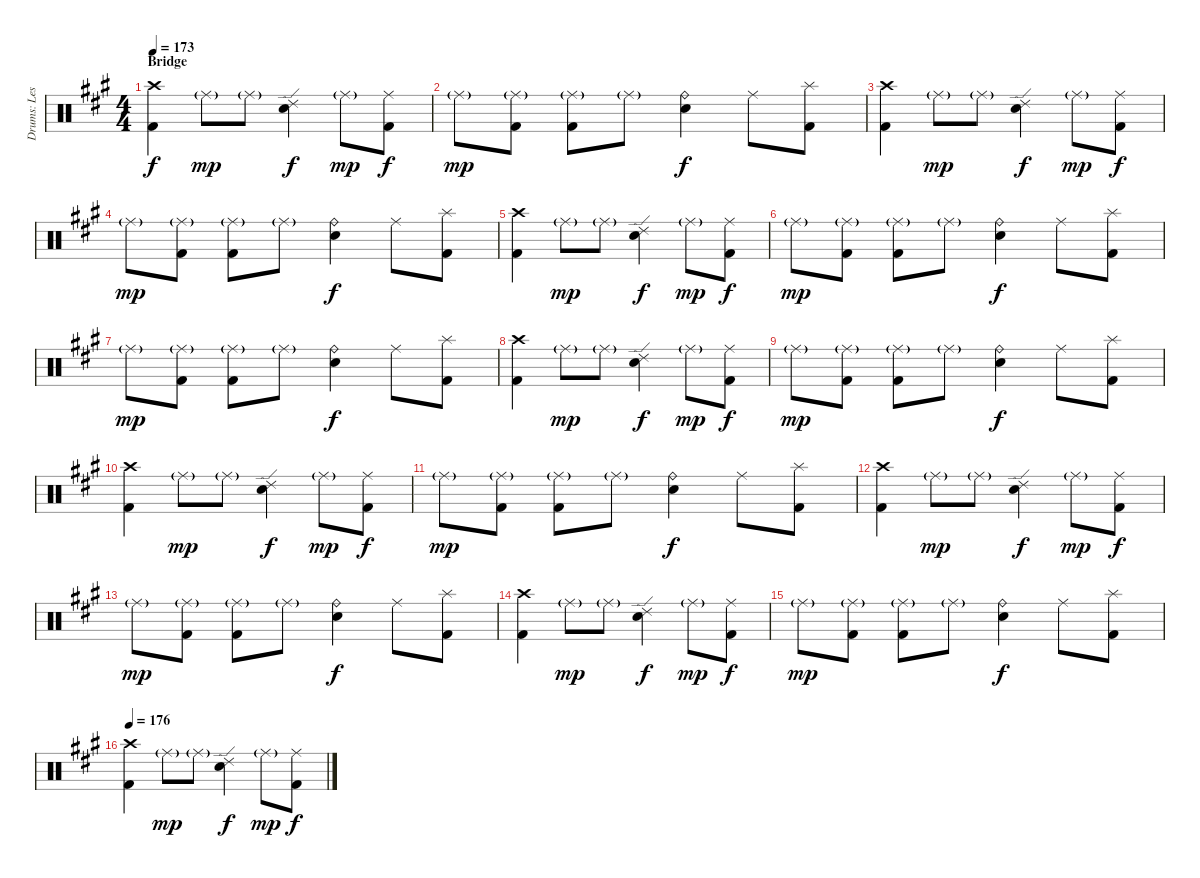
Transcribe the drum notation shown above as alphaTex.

\track ("Drums: Les" "Drums: Les") {instrument percussion}
\staff {score}
\articulation defaults
\ts (4 4)
\section ("" "Bridge")
\tempo 173
\clef neutral
\ks a
("Crash high (hit)" "Kick (hit) 2").4{dy f} "Ride (middle)"{g}.8{dy mp} "Ride (middle)"{g}.8 ("Ride (edge) 2" "Snare (hit) 2").4{dy f} "Ride (middle)"{g}.8{dy mp} ("Ride (middle)" "Kick (hit) 2").8{dy f} |
"Ride (middle)"{g}.8{dy mp} ("Ride (middle)"{g} "Kick (hit) 2").8 ("Ride (middle)"{g} "Kick (hit) 2").8 "Ride (middle)"{g}.8 ("Ride (bell)" "Snare (hit) 2").4{dy f} "Ride (middle)".8 ("Splash (hit)" "Kick (hit) 2").8 |
("Crash high (hit)" "Kick (hit) 2").4 "Ride (middle)"{g}.8{dy mp} "Ride (middle)"{g}.8 ("Ride (edge) 2" "Snare (hit) 2").4{dy f} "Ride (middle)"{g}.8{dy mp} ("Ride (middle)" "Kick (hit) 2").8{dy f} |
"Ride (middle)"{g}.8{dy mp} ("Ride (middle)"{g} "Kick (hit) 2").8 ("Ride (middle)"{g} "Kick (hit) 2").8 "Ride (middle)"{g}.8 ("Ride (bell)" "Snare (hit) 2").4{dy f} "Ride (middle)".8 ("Splash (hit)" "Kick (hit) 2").8 |
("Crash high (hit)" "Kick (hit) 2").4 "Ride (middle)"{g}.8{dy mp} "Ride (middle)"{g}.8 ("Ride (edge) 2" "Snare (hit) 2").4{dy f} "Ride (middle)"{g}.8{dy mp} ("Ride (middle)" "Kick (hit) 2").8{dy f} |
"Ride (middle)"{g}.8{dy mp} ("Ride (middle)"{g} "Kick (hit) 2").8 ("Ride (middle)"{g} "Kick (hit) 2").8 "Ride (middle)"{g}.8 ("Ride (bell)" "Snare (hit) 2").4{dy f} "Ride (middle)".8 ("Splash (hit)" "Kick (hit) 2").8 |
"Ride (middle)"{g}.8{dy mp} ("Ride (middle)"{g} "Kick (hit) 2").8 ("Ride (middle)"{g} "Kick (hit) 2").8 "Ride (middle)"{g}.8 ("Ride (bell)" "Snare (hit) 2").4{dy f} "Ride (middle)".8 ("Splash (hit)" "Kick (hit) 2").8 |
("Crash high (hit)" "Kick (hit) 2").4 "Ride (middle)"{g}.8{dy mp} "Ride (middle)"{g}.8 ("Ride (edge) 2" "Snare (hit) 2").4{dy f} "Ride (middle)"{g}.8{dy mp} ("Ride (middle)" "Kick (hit) 2").8{dy f} |
"Ride (middle)"{g}.8{dy mp} ("Ride (middle)"{g} "Kick (hit) 2").8 ("Ride (middle)"{g} "Kick (hit) 2").8 "Ride (middle)"{g}.8 ("Ride (bell)" "Snare (hit) 2").4{dy f} "Ride (middle)".8 ("Splash (hit)" "Kick (hit) 2").8 |
("Crash high (hit)" "Kick (hit) 2").4 "Ride (middle)"{g}.8{dy mp} "Ride (middle)"{g}.8 ("Ride (edge) 2" "Snare (hit) 2").4{dy f} "Ride (middle)"{g}.8{dy mp} ("Ride (middle)" "Kick (hit) 2").8{dy f} |
"Ride (middle)"{g}.8{dy mp} ("Ride (middle)"{g} "Kick (hit) 2").8 ("Ride (middle)"{g} "Kick (hit) 2").8 "Ride (middle)"{g}.8 ("Ride (bell)" "Snare (hit) 2").4{dy f} "Ride (middle)".8 ("Splash (hit)" "Kick (hit) 2").8 |
("Crash high (hit)" "Kick (hit) 2").4 "Ride (middle)"{g}.8{dy mp} "Ride (middle)"{g}.8 ("Ride (edge) 2" "Snare (hit) 2").4{dy f} "Ride (middle)"{g}.8{dy mp} ("Ride (middle)" "Kick (hit) 2").8{dy f} |
"Ride (middle)"{g}.8{dy mp} ("Ride (middle)"{g} "Kick (hit) 2").8 ("Ride (middle)"{g} "Kick (hit) 2").8 "Ride (middle)"{g}.8 ("Ride (bell)" "Snare (hit) 2").4{dy f} "Ride (middle)".8 ("Splash (hit)" "Kick (hit) 2").8 |
("Crash high (hit)" "Kick (hit) 2").4 "Ride (middle)"{g}.8{dy mp} "Ride (middle)"{g}.8 ("Ride (edge) 2" "Snare (hit) 2").4{dy f} "Ride (middle)"{g}.8{dy mp} ("Ride (middle)" "Kick (hit) 2").8{dy f} |
"Ride (middle)"{g}.8{dy mp} ("Ride (middle)"{g} "Kick (hit) 2").8 ("Ride (middle)"{g} "Kick (hit) 2").8 "Ride (middle)"{g}.8 ("Ride (bell)" "Snare (hit) 2").4{dy f} "Ride (middle)".8 ("Splash (hit)" "Kick (hit) 2").8 |
\tempo 176
("Crash high (hit)" "Kick (hit) 2").4 "Ride (middle)"{g}.8{dy mp} "Ride (middle)"{g}.8 ("Ride (edge) 2" "Snare (hit) 2").4{dy f} "Ride (middle)"{g}.8{dy mp} ("Ride (middle)" "Kick (hit) 2").8{dy f}
